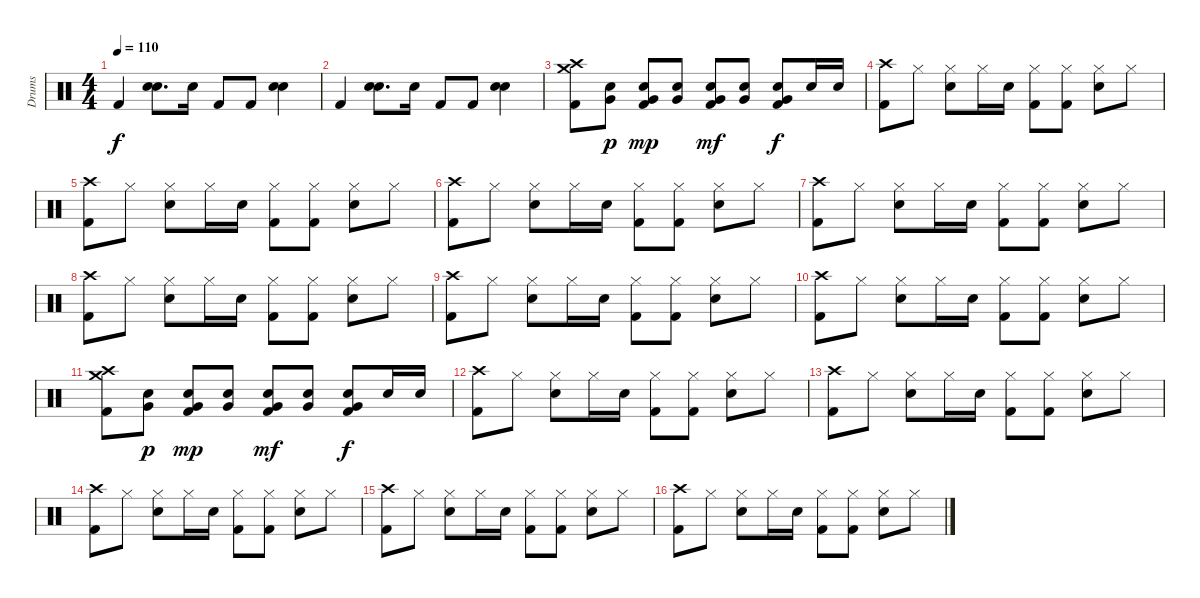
\track ("Drums" "Drums") {instrument percussion}
\staff {score}
\articulation defaults
\ts (4 4)
\tempo 110
\clef neutral
\ks c "Kick (hit) 2".4{dy f}
("Hand Clap (hit)" "Snare (hit) 2").8{d} "Snare (hit) 2".16 "Kick (hit) 2".8 "Kick (hit) 2".8 ("Hand Clap (hit)" "Snare (hit) 2").4 |
"Kick (hit) 2".4 ("Hand Clap (hit)" "Snare (hit) 2").8{d} "Snare (hit) 2".16 "Kick (hit) 2".8 "Kick (hit) 2".8 ("Hand Clap (hit)" "Snare (hit) 2").4 |
("Crash high (hit)" "Crash medium (hit)" "Kick (hit) 2").8 ("Very Low Tom (hit)" "Snare (hit) 2").8{dy p} ("Very Low Tom (hit)" "Snare (hit) 2" "Kick (hit) 2").8{dy mp} ("Very Low Tom (hit)" "Snare (hit) 2").8 ("Very Low Tom (hit)" "Snare (hit) 2" "Kick (hit) 2").8{dy mf} ("Very Low Tom (hit)" "Snare (hit) 2").8 ("Very Low Tom (hit)" "Snare (hit) 2" "Kick (hit) 2").8{dy f} "Snare (hit) 2".16 "Snare (hit) 2".16 |
("Crash high (hit)" "Kick (hit) 2").8 "Hi-Hat (closed)".8 ("Hi-Hat (closed)" "Snare (hit) 2").8 "Hi-Hat (closed)".16 "Snare (hit) 2".16 ("Hi-Hat (closed)" "Kick (hit) 2").8 ("Hi-Hat (closed)" "Kick (hit) 2").8 ("Hi-Hat (closed)" "Snare (hit) 2").8 "Hi-Hat (closed)".8 |
("Crash high (hit)" "Kick (hit) 2").8 "Hi-Hat (closed)".8 ("Hi-Hat (closed)" "Snare (hit) 2").8 "Hi-Hat (closed)".16 "Snare (hit) 2".16 ("Hi-Hat (closed)" "Kick (hit) 2").8 ("Hi-Hat (closed)" "Kick (hit) 2").8 ("Hi-Hat (closed)" "Snare (hit) 2").8 "Hi-Hat (closed)".8 |
("Crash high (hit)" "Kick (hit) 2").8 "Hi-Hat (closed)".8 ("Hi-Hat (closed)" "Snare (hit) 2").8 "Hi-Hat (closed)".16 "Snare (hit) 2".16 ("Hi-Hat (closed)" "Kick (hit) 2").8 ("Hi-Hat (closed)" "Kick (hit) 2").8 ("Hi-Hat (closed)" "Snare (hit) 2").8 "Hi-Hat (closed)".8 |
("Crash high (hit)" "Kick (hit) 2").8 "Hi-Hat (closed)".8 ("Hi-Hat (closed)" "Snare (hit) 2").8 "Hi-Hat (closed)".16 "Snare (hit) 2".16 ("Hi-Hat (closed)" "Kick (hit) 2").8 ("Hi-Hat (closed)" "Kick (hit) 2").8 ("Hi-Hat (closed)" "Snare (hit) 2").8 "Hi-Hat (closed)".8 |
("Crash high (hit)" "Kick (hit) 2").8 "Hi-Hat (closed)".8 ("Hi-Hat (closed)" "Snare (hit) 2").8 "Hi-Hat (closed)".16 "Snare (hit) 2".16 ("Hi-Hat (closed)" "Kick (hit) 2").8 ("Hi-Hat (closed)" "Kick (hit) 2").8 ("Hi-Hat (closed)" "Snare (hit) 2").8 "Hi-Hat (closed)".8 |
("Crash high (hit)" "Kick (hit) 2").8 "Hi-Hat (closed)".8 ("Hi-Hat (closed)" "Snare (hit) 2").8 "Hi-Hat (closed)".16 "Snare (hit) 2".16 ("Hi-Hat (closed)" "Kick (hit) 2").8 ("Hi-Hat (closed)" "Kick (hit) 2").8 ("Hi-Hat (closed)" "Snare (hit) 2").8 "Hi-Hat (closed)".8 |
("Crash high (hit)" "Kick (hit) 2").8 "Hi-Hat (closed)".8 ("Hi-Hat (closed)" "Snare (hit) 2").8 "Hi-Hat (closed)".16 "Snare (hit) 2".16 ("Hi-Hat (closed)" "Kick (hit) 2").8 ("Hi-Hat (closed)" "Kick (hit) 2").8 ("Hi-Hat (closed)" "Snare (hit) 2").8 "Hi-Hat (closed)".8 |
("Crash high (hit)" "Crash medium (hit)" "Kick (hit) 2").8 ("Very Low Tom (hit)" "Snare (hit) 2").8{dy p} ("Very Low Tom (hit)" "Snare (hit) 2" "Kick (hit) 2").8{dy mp} ("Very Low Tom (hit)" "Snare (hit) 2").8 ("Very Low Tom (hit)" "Snare (hit) 2" "Kick (hit) 2").8{dy mf} ("Very Low Tom (hit)" "Snare (hit) 2").8 ("Very Low Tom (hit)" "Snare (hit) 2" "Kick (hit) 2").8{dy f} "Snare (hit) 2".16 "Snare (hit) 2".16 |
("Crash high (hit)" "Kick (hit) 2").8 "Hi-Hat (closed)".8 ("Hi-Hat (closed)" "Snare (hit) 2").8 "Hi-Hat (closed)".16 "Snare (hit) 2".16 ("Hi-Hat (closed)" "Kick (hit) 2").8 ("Hi-Hat (closed)" "Kick (hit) 2").8 ("Hi-Hat (closed)" "Snare (hit) 2").8 "Hi-Hat (closed)".8 |
("Crash high (hit)" "Kick (hit) 2").8 "Hi-Hat (closed)".8 ("Hi-Hat (closed)" "Snare (hit) 2").8 "Hi-Hat (closed)".16 "Snare (hit) 2".16 ("Hi-Hat (closed)" "Kick (hit) 2").8 ("Hi-Hat (closed)" "Kick (hit) 2").8 ("Hi-Hat (closed)" "Snare (hit) 2").8 "Hi-Hat (closed)".8 |
("Crash high (hit)" "Kick (hit) 2").8 "Hi-Hat (closed)".8 ("Hi-Hat (closed)" "Snare (hit) 2").8 "Hi-Hat (closed)".16 "Snare (hit) 2".16 ("Hi-Hat (closed)" "Kick (hit) 2").8 ("Hi-Hat (closed)" "Kick (hit) 2").8 ("Hi-Hat (closed)" "Snare (hit) 2").8 "Hi-Hat (closed)".8 |
("Crash high (hit)" "Kick (hit) 2").8 "Hi-Hat (closed)".8 ("Hi-Hat (closed)" "Snare (hit) 2").8 "Hi-Hat (closed)".16 "Snare (hit) 2".16 ("Hi-Hat (closed)" "Kick (hit) 2").8 ("Hi-Hat (closed)" "Kick (hit) 2").8 ("Hi-Hat (closed)" "Snare (hit) 2").8 "Hi-Hat (closed)".8 |
("Crash high (hit)" "Kick (hit) 2").8 "Hi-Hat (closed)".8 ("Hi-Hat (closed)" "Snare (hit) 2").8 "Hi-Hat (closed)".16 "Snare (hit) 2".16 ("Hi-Hat (closed)" "Kick (hit) 2").8 ("Hi-Hat (closed)" "Kick (hit) 2").8 ("Hi-Hat (closed)" "Snare (hit) 2").8 "Hi-Hat (closed)".8
